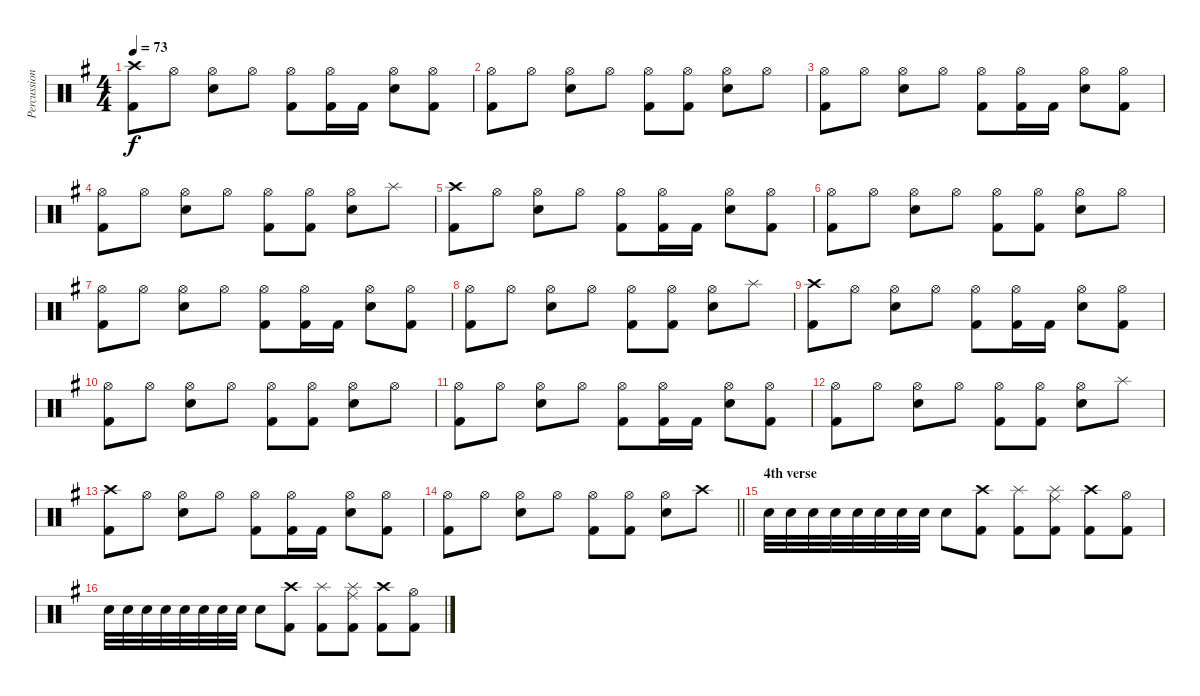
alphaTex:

\track ("Percussions" "Percussion") {instrument percussion}
\staff {score}
\articulation defaults
\ts (4 4)
\tempo 73
\clef neutral
\ks g
("Crash high (hit)" "Kick (hit) 2").8{dy f} "Hi-Hat (open)".8 ("Hi-Hat (open)" "Snare (hit) 2").8 "Hi-Hat (open)".8 ("Hi-Hat (open)" "Kick (hit) 2").8 ("Hi-Hat (open)" "Kick (hit) 2").16 "Kick (hit) 2".16 ("Hi-Hat (open)" "Snare (hit) 2").8 ("Hi-Hat (open)" "Kick (hit) 2").8 |
("Hi-Hat (open)" "Kick (hit) 2").8 "Hi-Hat (open)".8 ("Hi-Hat (open)" "Snare (hit) 2").8 "Hi-Hat (open)".8 ("Hi-Hat (open)" "Kick (hit) 2").8 ("Hi-Hat (open)" "Kick (hit) 2").8 ("Hi-Hat (open)" "Snare (hit) 2").8 "Hi-Hat (open)".8 |
("Hi-Hat (open)" "Kick (hit) 2").8 "Hi-Hat (open)".8 ("Hi-Hat (open)" "Snare (hit) 2").8 "Hi-Hat (open)".8 ("Hi-Hat (open)" "Kick (hit) 2").8 ("Hi-Hat (open)" "Kick (hit) 2").16 "Kick (hit) 2".16 ("Hi-Hat (open)" "Snare (hit) 2").8 ("Hi-Hat (open)" "Kick (hit) 2").8 |
("Hi-Hat (open)" "Kick (hit) 2").8 "Hi-Hat (open)".8 ("Hi-Hat (open)" "Snare (hit) 2").8 "Hi-Hat (open)".8 ("Hi-Hat (open)" "Kick (hit) 2").8 ("Hi-Hat (open)" "Kick (hit) 2").8 ("Hi-Hat (open)" "Snare (hit) 2").8 "Splash (hit)".8 |
("Crash high (hit)" "Kick (hit) 2").8 "Hi-Hat (open)".8 ("Hi-Hat (open)" "Snare (hit) 2").8 "Hi-Hat (open)".8 ("Hi-Hat (open)" "Kick (hit) 2").8 ("Hi-Hat (open)" "Kick (hit) 2").16 "Kick (hit) 2".16 ("Hi-Hat (open)" "Snare (hit) 2").8 ("Hi-Hat (open)" "Kick (hit) 2").8 |
("Hi-Hat (open)" "Kick (hit) 2").8 "Hi-Hat (open)".8 ("Hi-Hat (open)" "Snare (hit) 2").8 "Hi-Hat (open)".8 ("Hi-Hat (open)" "Kick (hit) 2").8 ("Hi-Hat (open)" "Kick (hit) 2").8 ("Hi-Hat (open)" "Snare (hit) 2").8 "Hi-Hat (open)".8 |
("Hi-Hat (open)" "Kick (hit) 2").8 "Hi-Hat (open)".8 ("Hi-Hat (open)" "Snare (hit) 2").8 "Hi-Hat (open)".8 ("Hi-Hat (open)" "Kick (hit) 2").8 ("Hi-Hat (open)" "Kick (hit) 2").16 "Kick (hit) 2".16 ("Hi-Hat (open)" "Snare (hit) 2").8 ("Hi-Hat (open)" "Kick (hit) 2").8 |
("Hi-Hat (open)" "Kick (hit) 2").8 "Hi-Hat (open)".8 ("Hi-Hat (open)" "Snare (hit) 2").8 "Hi-Hat (open)".8 ("Hi-Hat (open)" "Kick (hit) 2").8 ("Hi-Hat (open)" "Kick (hit) 2").8 ("Hi-Hat (open)" "Snare (hit) 2").8 "Splash (hit)".8 |
("Crash high (hit)" "Kick (hit) 2").8 "Hi-Hat (open)".8 ("Hi-Hat (open)" "Snare (hit) 2").8 "Hi-Hat (open)".8 ("Hi-Hat (open)" "Kick (hit) 2").8 ("Hi-Hat (open)" "Kick (hit) 2").16 "Kick (hit) 2".16 ("Hi-Hat (open)" "Snare (hit) 2").8 ("Hi-Hat (open)" "Kick (hit) 2").8 |
("Hi-Hat (open)" "Kick (hit) 2").8 "Hi-Hat (open)".8 ("Hi-Hat (open)" "Snare (hit) 2").8 "Hi-Hat (open)".8 ("Hi-Hat (open)" "Kick (hit) 2").8 ("Hi-Hat (open)" "Kick (hit) 2").8 ("Hi-Hat (open)" "Snare (hit) 2").8 "Hi-Hat (open)".8 |
("Hi-Hat (open)" "Kick (hit) 2").8 "Hi-Hat (open)".8 ("Hi-Hat (open)" "Snare (hit) 2").8 "Hi-Hat (open)".8 ("Hi-Hat (open)" "Kick (hit) 2").8 ("Hi-Hat (open)" "Kick (hit) 2").16 "Kick (hit) 2".16 ("Hi-Hat (open)" "Snare (hit) 2").8 ("Hi-Hat (open)" "Kick (hit) 2").8 |
("Hi-Hat (open)" "Kick (hit) 2").8 "Hi-Hat (open)".8 ("Hi-Hat (open)" "Snare (hit) 2").8 "Hi-Hat (open)".8 ("Hi-Hat (open)" "Kick (hit) 2").8 ("Hi-Hat (open)" "Kick (hit) 2").8 ("Hi-Hat (open)" "Snare (hit) 2").8 "Splash (hit)".8 |
("Crash high (hit)" "Kick (hit) 2").8 "Hi-Hat (open)".8 ("Hi-Hat (open)" "Snare (hit) 2").8 "Hi-Hat (open)".8 ("Hi-Hat (open)" "Kick (hit) 2").8 ("Hi-Hat (open)" "Kick (hit) 2").16 "Kick (hit) 2".16 ("Hi-Hat (open)" "Snare (hit) 2").8 ("Hi-Hat (open)" "Kick (hit) 2").8 |
\barLineRight lightlight
("Hi-Hat (open)" "Kick (hit) 2").8 "Hi-Hat (open)".8 ("Hi-Hat (open)" "Snare (hit) 2").8 "Hi-Hat (open)".8 ("Hi-Hat (open)" "Kick (hit) 2").8 ("Hi-Hat (open)" "Kick (hit) 2").8 ("Hi-Hat (open)" "Snare (hit) 2").8 "Crash high (hit)".8 |
\section ("" "4th verse")
"Snare (hit) 2".32 "Snare (hit) 2".32 "Snare (hit) 2".32 "Snare (hit) 2".32 "Snare (hit) 2".32 "Snare (hit) 2".32 "Snare (hit) 2".32 "Snare (hit) 2".32 "Snare (hit) 2".8 ("Crash high (hit)" "Kick (hit) 2").8 ("Splash (hit)" "Kick (hit) 2").8 ("Splash (hit)" "Ride (middle)" "Kick (hit) 2").8 ("Crash high (hit)" "Kick (hit) 2").8 ("Hi-Hat (open)" "Kick (hit) 2").8 |
"Snare (hit) 2".32 "Snare (hit) 2".32 "Snare (hit) 2".32 "Snare (hit) 2".32 "Snare (hit) 2".32 "Snare (hit) 2".32 "Snare (hit) 2".32 "Snare (hit) 2".32 "Snare (hit) 2".8 ("Crash high (hit)" "Kick (hit) 2").8 ("Splash (hit)" "Kick (hit) 2").8 ("Splash (hit)" "Ride (middle)" "Kick (hit) 2").8 ("Crash high (hit)" "Kick (hit) 2").8 ("Hi-Hat (open)" "Kick (hit) 2").8
